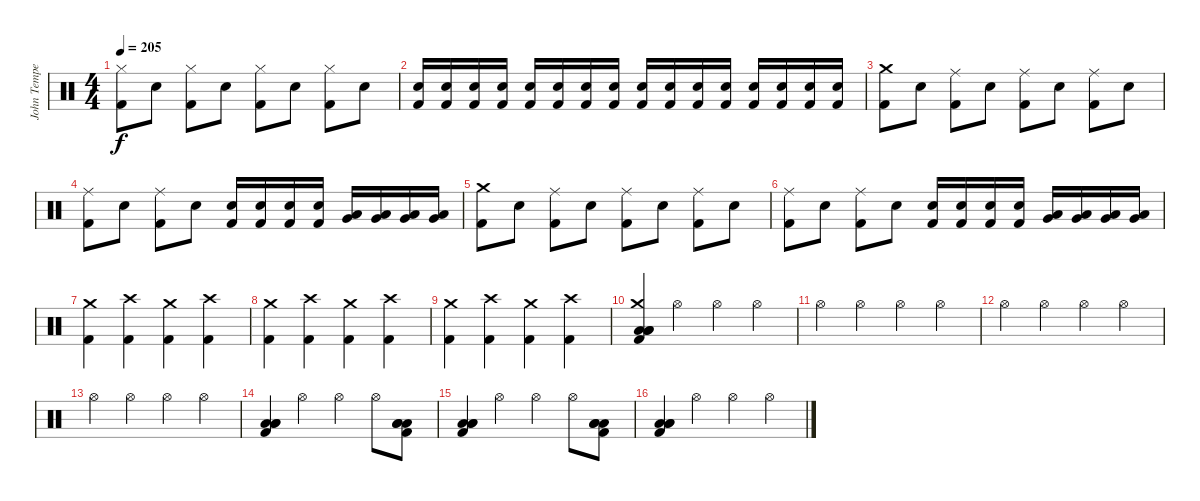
\track ("John Tempesta" "John Tempe") {instrument percussion}
\staff {score}
\articulation defaults
\ts (4 4)
\tempo 205
\clef neutral
\ks c
("Kick (hit) 2" "Hi-Hat (closed)").8{dy f} "Snare (hit) 2".8 ("Kick (hit) 2" "Hi-Hat (closed)").8 "Snare (hit) 2".8 ("Kick (hit) 2" "Hi-Hat (closed)").8 "Snare (hit) 2".8 ("Kick (hit) 2" "Hi-Hat (closed)").8 "Snare (hit) 2".8 |
("Kick (hit) 2" "Snare (hit) 2").16 ("Kick (hit) 2" "Snare (hit) 2").16 ("Kick (hit) 2" "Snare (hit) 2").16 ("Kick (hit) 2" "Snare (hit) 2").16 ("Kick (hit) 2" "Snare (hit) 2").16 ("Kick (hit) 2" "Snare (hit) 2").16 ("Kick (hit) 2" "Snare (hit) 2").16 ("Kick (hit) 2" "Snare (hit) 2").16 ("Kick (hit) 2" "Snare (hit) 2").16 ("Kick (hit) 2" "Snare (hit) 2").16 ("Kick (hit) 2" "Snare (hit) 2").16 ("Kick (hit) 2" "Snare (hit) 2").16 ("Kick (hit) 2" "Snare (hit) 2").16 ("Kick (hit) 2" "Snare (hit) 2").16 ("Kick (hit) 2" "Snare (hit) 2").16 ("Kick (hit) 2" "Snare (hit) 2").16 |
("Kick (hit) 2" "Crash medium (hit)").8 "Snare (hit) 2".8 ("Kick (hit) 2" "Ride (middle)").8 "Snare (hit) 2".8 ("Kick (hit) 2" "Ride (middle)").8 "Snare (hit) 2".8 ("Kick (hit) 2" "Ride (middle)").8 "Snare (hit) 2".8 |
("Kick (hit) 2" "Ride (middle)").8 "Snare (hit) 2".8 ("Kick (hit) 2" "Ride (middle)").8 "Snare (hit) 2".8 ("Kick (hit) 2" "Snare (hit) 2").16 ("Snare (hit) 2" "Kick (hit) 2").16 ("Kick (hit) 2" "Snare (hit) 2").16 ("Snare (hit) 2" "Kick (hit) 2").16 ("Low Floor Tom (hit)" "Very Low Tom (hit)").16 ("Low Floor Tom (hit)" "Very Low Tom (hit)").16 ("Low Floor Tom (hit)" "Very Low Tom (hit)").16 ("Low Floor Tom (hit)" "Very Low Tom (hit)").16 |
("Kick (hit) 2" "Crash medium (hit)").8 "Snare (hit) 2".8 ("Kick (hit) 2" "Ride (middle)").8 "Snare (hit) 2".8 ("Kick (hit) 2" "Ride (middle)").8 "Snare (hit) 2".8 ("Kick (hit) 2" "Ride (middle)").8 "Snare (hit) 2".8 |
("Kick (hit) 2" "Ride (middle)").8 "Snare (hit) 2".8 ("Kick (hit) 2" "Ride (middle)").8 "Snare (hit) 2".8 ("Kick (hit) 2" "Snare (hit) 2").16 ("Snare (hit) 2" "Kick (hit) 2").16 ("Kick (hit) 2" "Snare (hit) 2").16 ("Snare (hit) 2" "Kick (hit) 2").16 ("Low Floor Tom (hit)" "Very Low Tom (hit)").16 ("Low Floor Tom (hit)" "Very Low Tom (hit)").16 ("Low Floor Tom (hit)" "Very Low Tom (hit)").16 ("Low Floor Tom (hit)" "Very Low Tom (hit)").16 |
("Kick (hit) 2" "Crash medium (hit)").4 ("Kick (hit) 2" "Crash high (hit)").4 ("Kick (hit) 2" "Crash medium (hit)").4 ("Kick (hit) 2" "Crash high (hit)").4 |
("Kick (hit) 2" "Crash medium (hit)").4 ("Kick (hit) 2" "Crash high (hit)").4 ("Kick (hit) 2" "Crash medium (hit)").4 ("Kick (hit) 2" "Crash high (hit)").4 |
("Kick (hit) 2" "Crash medium (hit)").4 ("Kick (hit) 2" "Crash high (hit)").4 ("Kick (hit) 2" "Crash medium (hit)").4 ("Kick (hit) 2" "Crash high (hit)").4 |
("Kick (hit) 2" "Low Floor Tom (hit)" "Low Tom (hit)" "Low Floor Tom (hit)" "Crash medium (hit)").4 "Hi-Hat (open)".4 "Hi-Hat (open)".4 "Hi-Hat (open)".4 |
"Hi-Hat (open)".4 "Hi-Hat (open)".4 "Hi-Hat (open)".4 "Hi-Hat (open)".4 |
"Hi-Hat (open)".4 "Hi-Hat (open)".4 "Hi-Hat (open)".4 "Hi-Hat (open)".4 |
"Hi-Hat (open)".4 "Hi-Hat (open)".4 "Hi-Hat (open)".4 "Hi-Hat (open)".4 |
("Kick (hit) 2" "Low Floor Tom (hit)" "Low Tom (hit)" "Low Floor Tom (hit)").4 "Hi-Hat (open)".4 "Hi-Hat (open)".4 "Hi-Hat (open)".8 ("Kick (hit) 2" "Low Floor Tom (hit)" "Low Tom (hit)" "Low Floor Tom (hit)").8 |
("Kick (hit) 2" "Low Floor Tom (hit)" "Low Tom (hit)" "Low Floor Tom (hit)").4 "Hi-Hat (open)".4 "Hi-Hat (open)".4 "Hi-Hat (open)".8 ("Kick (hit) 2" "Low Floor Tom (hit)" "Low Tom (hit)" "Low Floor Tom (hit)").8 |
("Kick (hit) 2" "Low Floor Tom (hit)" "Low Tom (hit)" "Low Floor Tom (hit)").4 "Hi-Hat (open)".4 "Hi-Hat (open)".4 "Hi-Hat (open)".4
